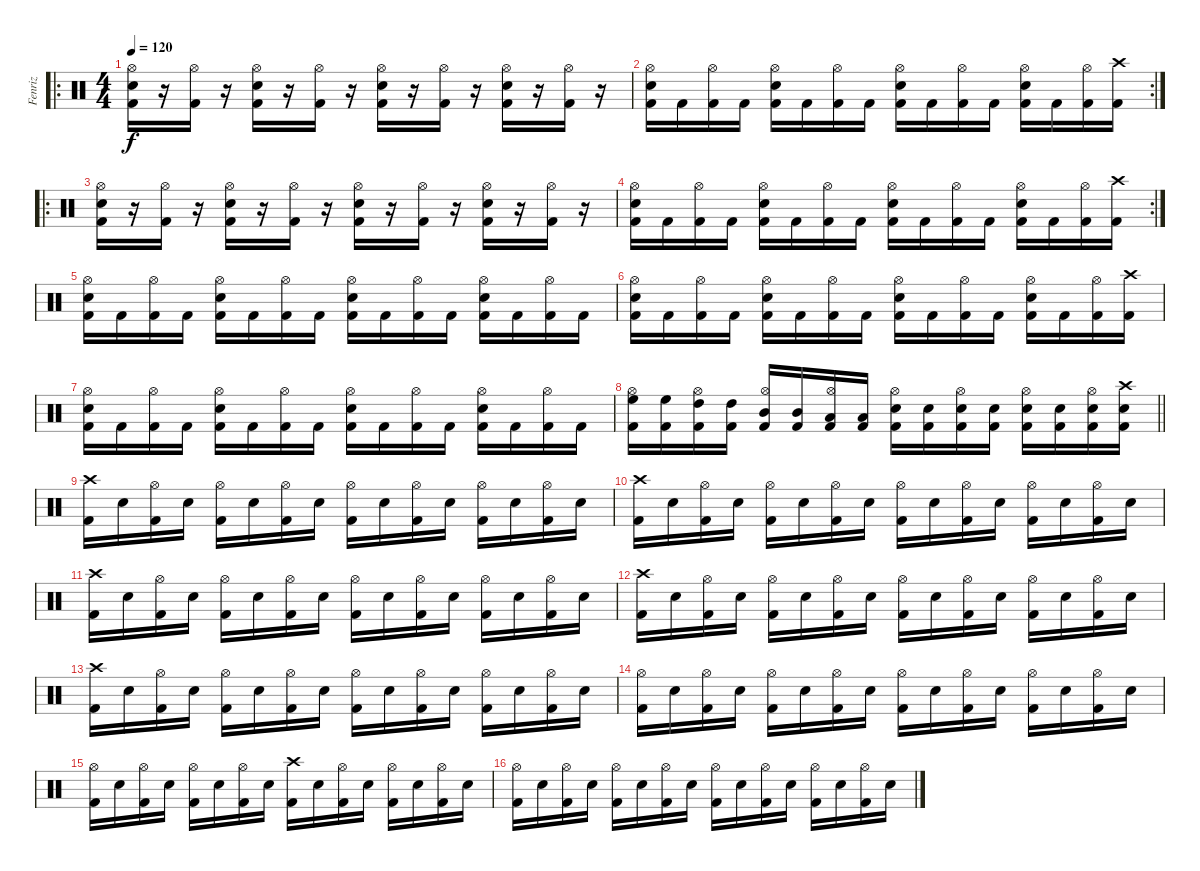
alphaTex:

\track ("Fenriz" "Fenriz") {instrument percussion}
\staff {score}
\articulation defaults
\ro
\ts (4 4)
\tempo 120
\clef neutral
\ks c
("Kick (hit) 2" "Electric Snare (hit)" "Hi-Hat (open)").16{dy f} r.16 ("Kick (hit) 2" "Hi-Hat (open)").16 r.16 ("Kick (hit) 2" "Electric Snare (hit)" "Hi-Hat (open)").16 r.16 ("Kick (hit) 2" "Hi-Hat (open)").16 r.16 ("Kick (hit) 2" "Electric Snare (hit)" "Hi-Hat (open)").16 r.16 ("Kick (hit) 2" "Hi-Hat (open)").16 r.16 ("Kick (hit) 2" "Electric Snare (hit)" "Hi-Hat (open)").16 r.16 ("Kick (hit) 2" "Hi-Hat (open)").16 r.16 |
\rc 2
("Kick (hit) 2" "Electric Snare (hit)" "Hi-Hat (open)").16 "Kick (hit) 2".16 ("Kick (hit) 2" "Hi-Hat (open)").16 "Kick (hit) 2".16 ("Kick (hit) 2" "Electric Snare (hit)" "Hi-Hat (open)").16 "Kick (hit) 2".16 ("Kick (hit) 2" "Hi-Hat (open)").16 "Kick (hit) 2".16 ("Kick (hit) 2" "Electric Snare (hit)" "Hi-Hat (open)").16 "Kick (hit) 2".16 ("Kick (hit) 2" "Hi-Hat (open)").16 "Kick (hit) 2".16 ("Kick (hit) 2" "Electric Snare (hit)" "Hi-Hat (open)").16 "Kick (hit) 2".16 ("Kick (hit) 2" "Hi-Hat (open)").16 ("Kick (hit) 2" "Crash high (hit)").16 |
\ro
("Kick (hit) 2" "Electric Snare (hit)" "Hi-Hat (open)").16 r.16 ("Kick (hit) 2" "Hi-Hat (open)").16 r.16 ("Kick (hit) 2" "Electric Snare (hit)" "Hi-Hat (open)").16 r.16 ("Kick (hit) 2" "Hi-Hat (open)").16 r.16 ("Kick (hit) 2" "Electric Snare (hit)" "Hi-Hat (open)").16 r.16 ("Kick (hit) 2" "Hi-Hat (open)").16 r.16 ("Kick (hit) 2" "Electric Snare (hit)" "Hi-Hat (open)").16 r.16 ("Kick (hit) 2" "Hi-Hat (open)").16 r.16 |
\rc 2
("Kick (hit) 2" "Electric Snare (hit)" "Hi-Hat (open)").16 "Kick (hit) 2".16 ("Kick (hit) 2" "Hi-Hat (open)").16 "Kick (hit) 2".16 ("Kick (hit) 2" "Electric Snare (hit)" "Hi-Hat (open)").16 "Kick (hit) 2".16 ("Kick (hit) 2" "Hi-Hat (open)").16 "Kick (hit) 2".16 ("Kick (hit) 2" "Electric Snare (hit)" "Hi-Hat (open)").16 "Kick (hit) 2".16 ("Kick (hit) 2" "Hi-Hat (open)").16 "Kick (hit) 2".16 ("Kick (hit) 2" "Electric Snare (hit)" "Hi-Hat (open)").16 "Kick (hit) 2".16 ("Kick (hit) 2" "Hi-Hat (open)").16 ("Kick (hit) 2" "Crash high (hit)").16 |
("Kick (hit) 2" "Electric Snare (hit)" "Hi-Hat (open)").16 "Kick (hit) 2".16 ("Kick (hit) 2" "Hi-Hat (open)").16 "Kick (hit) 2".16 ("Kick (hit) 2" "Electric Snare (hit)" "Hi-Hat (open)").16 "Kick (hit) 2".16 ("Kick (hit) 2" "Hi-Hat (open)").16 "Kick (hit) 2".16 ("Kick (hit) 2" "Electric Snare (hit)" "Hi-Hat (open)").16 "Kick (hit) 2".16 ("Kick (hit) 2" "Hi-Hat (open)").16 "Kick (hit) 2".16 ("Kick (hit) 2" "Electric Snare (hit)" "Hi-Hat (open)").16 "Kick (hit) 2".16 ("Kick (hit) 2" "Hi-Hat (open)").16 "Kick (hit) 2".16 |
("Kick (hit) 2" "Electric Snare (hit)" "Hi-Hat (open)").16 "Kick (hit) 2".16 ("Kick (hit) 2" "Hi-Hat (open)").16 "Kick (hit) 2".16 ("Kick (hit) 2" "Electric Snare (hit)" "Hi-Hat (open)").16 "Kick (hit) 2".16 ("Kick (hit) 2" "Hi-Hat (open)").16 "Kick (hit) 2".16 ("Kick (hit) 2" "Electric Snare (hit)" "Hi-Hat (open)").16 "Kick (hit) 2".16 ("Kick (hit) 2" "Hi-Hat (open)").16 "Kick (hit) 2".16 ("Kick (hit) 2" "Electric Snare (hit)" "Hi-Hat (open)").16 "Kick (hit) 2".16 ("Kick (hit) 2" "Hi-Hat (open)").16 ("Kick (hit) 2" "Crash high (hit)").16 |
("Kick (hit) 2" "Electric Snare (hit)" "Hi-Hat (open)").16 "Kick (hit) 2".16 ("Kick (hit) 2" "Hi-Hat (open)").16 "Kick (hit) 2".16 ("Kick (hit) 2" "Electric Snare (hit)" "Hi-Hat (open)").16 "Kick (hit) 2".16 ("Kick (hit) 2" "Hi-Hat (open)").16 "Kick (hit) 2".16 ("Kick (hit) 2" "Electric Snare (hit)" "Hi-Hat (open)").16 "Kick (hit) 2".16 ("Kick (hit) 2" "Hi-Hat (open)").16 "Kick (hit) 2".16 ("Kick (hit) 2" "Electric Snare (hit)" "Hi-Hat (open)").16 "Kick (hit) 2".16 ("Kick (hit) 2" "Hi-Hat (open)").16 "Kick (hit) 2".16 |
\barLineRight lightlight
("Kick (hit) 2" "High Floor Tom (hit)" "Hi-Hat (open)").16 ("Kick (hit) 2" "High Floor Tom (hit)").16 ("Kick (hit) 2" "High Tom (hit)" "Hi-Hat (open)").16 ("Kick (hit) 2" "High Tom (hit)").16 ("Kick (hit) 2" "Mid Tom (hit)" "Hi-Hat (open)").16 ("Kick (hit) 2" "Mid Tom (hit)").16 ("Kick (hit) 2" "Low Tom (hit)" "Hi-Hat (open)").16 ("Kick (hit) 2" "Low Tom (hit)").16 ("Kick (hit) 2" "Electric Snare (hit)" "Hi-Hat (open)").16 ("Kick (hit) 2" "Electric Snare (hit)").16 ("Kick (hit) 2" "Electric Snare (hit)" "Hi-Hat (open)").16 ("Kick (hit) 2" "Electric Snare (hit)").16 ("Kick (hit) 2" "Electric Snare (hit)" "Hi-Hat (open)").16 ("Kick (hit) 2" "Electric Snare (hit)").16 ("Kick (hit) 2" "Electric Snare (hit)" "Hi-Hat (open)").16 ("Kick (hit) 2" "Electric Snare (hit)" "Crash high (hit)").16 |
("Kick (hit) 2" "Crash high (hit)").16 "Electric Snare (hit)".16 ("Kick (hit) 2" "Hi-Hat (open)").16 "Electric Snare (hit)".16 ("Kick (hit) 2" "Hi-Hat (open)").16 "Electric Snare (hit)".16 ("Kick (hit) 2" "Hi-Hat (open)").16 "Electric Snare (hit)".16 ("Kick (hit) 2" "Hi-Hat (open)").16 "Electric Snare (hit)".16 ("Kick (hit) 2" "Hi-Hat (open)").16 "Electric Snare (hit)".16 ("Kick (hit) 2" "Hi-Hat (open)").16 "Electric Snare (hit)".16 ("Kick (hit) 2" "Hi-Hat (open)").16 "Electric Snare (hit)".16 |
("Kick (hit) 2" "Crash high (hit)").16 "Electric Snare (hit)".16 ("Kick (hit) 2" "Hi-Hat (open)").16 "Electric Snare (hit)".16 ("Kick (hit) 2" "Hi-Hat (open)").16 "Electric Snare (hit)".16 ("Kick (hit) 2" "Hi-Hat (open)").16 "Electric Snare (hit)".16 ("Kick (hit) 2" "Hi-Hat (open)").16 "Electric Snare (hit)".16 ("Kick (hit) 2" "Hi-Hat (open)").16 "Electric Snare (hit)".16 ("Kick (hit) 2" "Hi-Hat (open)").16 "Electric Snare (hit)".16 ("Kick (hit) 2" "Hi-Hat (open)").16 "Electric Snare (hit)".16 |
("Kick (hit) 2" "Crash high (hit)").16 "Electric Snare (hit)".16 ("Kick (hit) 2" "Hi-Hat (open)").16 "Electric Snare (hit)".16 ("Kick (hit) 2" "Hi-Hat (open)").16 "Electric Snare (hit)".16 ("Kick (hit) 2" "Hi-Hat (open)").16 "Electric Snare (hit)".16 ("Kick (hit) 2" "Hi-Hat (open)").16 "Electric Snare (hit)".16 ("Kick (hit) 2" "Hi-Hat (open)").16 "Electric Snare (hit)".16 ("Kick (hit) 2" "Hi-Hat (open)").16 "Electric Snare (hit)".16 ("Kick (hit) 2" "Hi-Hat (open)").16 "Electric Snare (hit)".16 |
("Kick (hit) 2" "Crash high (hit)").16 "Electric Snare (hit)".16 ("Kick (hit) 2" "Hi-Hat (open)").16 "Electric Snare (hit)".16 ("Kick (hit) 2" "Hi-Hat (open)").16 "Electric Snare (hit)".16 ("Kick (hit) 2" "Hi-Hat (open)").16 "Electric Snare (hit)".16 ("Kick (hit) 2" "Hi-Hat (open)").16 "Electric Snare (hit)".16 ("Kick (hit) 2" "Hi-Hat (open)").16 "Electric Snare (hit)".16 ("Kick (hit) 2" "Hi-Hat (open)").16 "Electric Snare (hit)".16 ("Kick (hit) 2" "Hi-Hat (open)").16 "Electric Snare (hit)".16 |
("Kick (hit) 2" "Crash high (hit)").16 "Electric Snare (hit)".16 ("Kick (hit) 2" "Hi-Hat (open)").16 "Electric Snare (hit)".16 ("Kick (hit) 2" "Hi-Hat (open)").16 "Electric Snare (hit)".16 ("Kick (hit) 2" "Hi-Hat (open)").16 "Electric Snare (hit)".16 ("Kick (hit) 2" "Hi-Hat (open)").16 "Electric Snare (hit)".16 ("Kick (hit) 2" "Hi-Hat (open)").16 "Electric Snare (hit)".16 ("Kick (hit) 2" "Hi-Hat (open)").16 "Electric Snare (hit)".16 ("Kick (hit) 2" "Hi-Hat (open)").16 "Electric Snare (hit)".16 |
("Kick (hit) 2" "Hi-Hat (open)").16 "Electric Snare (hit)".16 ("Kick (hit) 2" "Hi-Hat (open)").16 "Electric Snare (hit)".16 ("Kick (hit) 2" "Hi-Hat (open)").16 "Electric Snare (hit)".16 ("Kick (hit) 2" "Hi-Hat (open)").16 "Electric Snare (hit)".16 ("Kick (hit) 2" "Hi-Hat (open)").16 "Electric Snare (hit)".16 ("Kick (hit) 2" "Hi-Hat (open)").16 "Electric Snare (hit)".16 ("Kick (hit) 2" "Hi-Hat (open)").16 "Electric Snare (hit)".16 ("Kick (hit) 2" "Hi-Hat (open)").16 "Electric Snare (hit)".16 |
("Kick (hit) 2" "Hi-Hat (open)").16 "Electric Snare (hit)".16 ("Kick (hit) 2" "Hi-Hat (open)").16 "Electric Snare (hit)".16 ("Kick (hit) 2" "Hi-Hat (open)").16 "Electric Snare (hit)".16 ("Kick (hit) 2" "Hi-Hat (open)").16 "Electric Snare (hit)".16 ("Kick (hit) 2" "Crash high (hit)").16 "Electric Snare (hit)".16 ("Kick (hit) 2" "Hi-Hat (open)").16 "Electric Snare (hit)".16 ("Kick (hit) 2" "Hi-Hat (open)").16 "Electric Snare (hit)".16 ("Kick (hit) 2" "Hi-Hat (open)").16 "Electric Snare (hit)".16 |
("Kick (hit) 2" "Hi-Hat (open)").16 "Electric Snare (hit)".16 ("Kick (hit) 2" "Hi-Hat (open)").16 "Electric Snare (hit)".16 ("Kick (hit) 2" "Hi-Hat (open)").16 "Electric Snare (hit)".16 ("Kick (hit) 2" "Hi-Hat (open)").16 "Electric Snare (hit)".16 ("Kick (hit) 2" "Hi-Hat (open)").16 "Electric Snare (hit)".16 ("Kick (hit) 2" "Hi-Hat (open)").16 "Electric Snare (hit)".16 ("Kick (hit) 2" "Hi-Hat (open)").16 "Electric Snare (hit)".16 ("Kick (hit) 2" "Hi-Hat (open)").16 "Electric Snare (hit)".16
